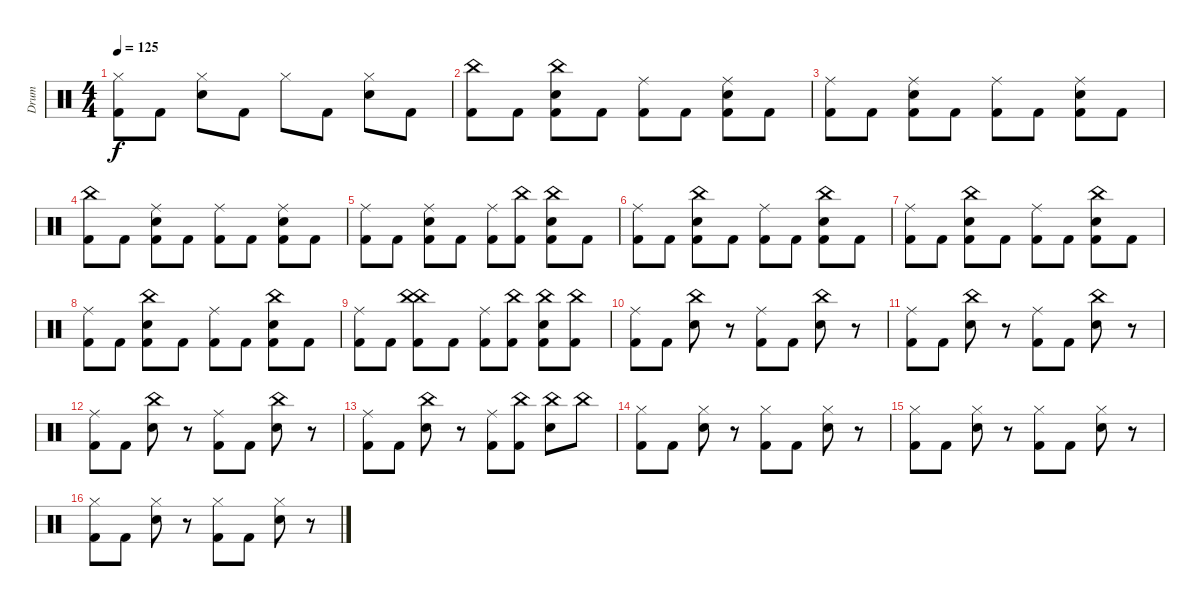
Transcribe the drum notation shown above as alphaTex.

\track ("Drum" "Drum") {instrument percussion}
\staff {score}
\articulation defaults
\ts (4 4)
\tempo 125
\clef neutral
\ks c
("Hi-Hat (closed)" "Kick (hit) 2").8{dy f} "Kick (hit) 2".8 ("Hi-Hat (closed)" "Snare (hit) 2").8 "Kick (hit) 2".8 "Hi-Hat (closed)".8 "Kick (hit) 2".8 ("Hi-Hat (closed)" "Snare (hit) 2").8 "Kick (hit) 2".8 |
("China (hit)" "Kick (hit) 2").8 "Kick (hit) 2".8 ("China (hit)" "Snare (hit) 2" "Kick (hit) 2").8 "Kick (hit) 2".8 ("Ride (middle)" "Kick (hit) 2").8 "Kick (hit) 2".8 ("Ride (middle)" "Snare (hit) 2" "Kick (hit) 2").8 "Kick (hit) 2".8 |
("Ride (middle)" "Kick (hit) 2").8 "Kick (hit) 2".8 ("Ride (middle)" "Snare (hit) 2" "Kick (hit) 2").8 "Kick (hit) 2".8 ("Ride (middle)" "Kick (hit) 2").8 "Kick (hit) 2".8 ("Ride (middle)" "Snare (hit) 2" "Kick (hit) 2").8 "Kick (hit) 2".8 |
("China (hit)" "Kick (hit) 2").8 "Kick (hit) 2".8 ("Ride (middle)" "Snare (hit) 2" "Kick (hit) 2").8 "Kick (hit) 2".8 ("Ride (middle)" "Kick (hit) 2").8 "Kick (hit) 2".8 ("Ride (middle)" "Snare (hit) 2" "Kick (hit) 2").8 "Kick (hit) 2".8 |
("Ride (middle)" "Kick (hit) 2").8 "Kick (hit) 2".8 ("Ride (middle)" "Snare (hit) 2" "Kick (hit) 2").8 "Kick (hit) 2".8 ("Ride (middle)" "Kick (hit) 2").8 ("China (hit)" "Kick (hit) 2").8 ("China (hit)" "Snare (hit) 2" "Kick (hit) 2").8 "Kick (hit) 2".8 |
("Ride (middle)" "Kick (hit) 2").8 "Kick (hit) 2".8 ("China (hit)" "Snare (hit) 2" "Kick (hit) 2").8 "Kick (hit) 2".8 ("Ride (middle)" "Kick (hit) 2").8 "Kick (hit) 2".8 ("China (hit)" "Snare (hit) 2" "Kick (hit) 2").8 "Kick (hit) 2".8 |
("Ride (middle)" "Kick (hit) 2").8 "Kick (hit) 2".8 ("China (hit)" "Snare (hit) 2" "Kick (hit) 2").8 "Kick (hit) 2".8 ("Ride (middle)" "Kick (hit) 2").8 "Kick (hit) 2".8 ("China (hit)" "Snare (hit) 2" "Kick (hit) 2").8 "Kick (hit) 2".8 |
("Ride (middle)" "Kick (hit) 2").8 "Kick (hit) 2".8 ("China (hit)" "Snare (hit) 2" "Kick (hit) 2").8 "Kick (hit) 2".8 ("Ride (middle)" "Kick (hit) 2").8 "Kick (hit) 2".8 ("China (hit)" "Snare (hit) 2" "Kick (hit) 2").8 "Kick (hit) 2".8 |
("Ride (middle)" "Kick (hit) 2").8 "Kick (hit) 2".8 ("China (hit)" "China (hit)" "Kick (hit) 2").8 "Kick (hit) 2".8 ("Ride (middle)" "Kick (hit) 2").8 ("China (hit)" "Kick (hit) 2").8 ("China (hit)" "Snare (hit) 2" "Kick (hit) 2").8 ("China (hit)" "Kick (hit) 2").8 |
("Ride (middle)" "Kick (hit) 2").8 "Kick (hit) 2".8 ("China (hit)" "Snare (hit) 2").8 r.8 ("Ride (middle)" "Kick (hit) 2").8 "Kick (hit) 2".8 ("China (hit)" "Snare (hit) 2").8 r.8 |
("Ride (middle)" "Kick (hit) 2").8 "Kick (hit) 2".8 ("China (hit)" "Snare (hit) 2").8 r.8 ("Ride (middle)" "Kick (hit) 2").8 "Kick (hit) 2".8 ("China (hit)" "Snare (hit) 2").8 r.8 |
("Ride (middle)" "Kick (hit) 2").8 "Kick (hit) 2".8 ("China (hit)" "Snare (hit) 2").8 r.8 ("Ride (middle)" "Kick (hit) 2").8 "Kick (hit) 2".8 ("China (hit)" "Snare (hit) 2").8 r.8 |
("Ride (middle)" "Kick (hit) 2").8 "Kick (hit) 2".8 ("China (hit)" "Snare (hit) 2").8 r.8 ("Ride (middle)" "Kick (hit) 2").8 ("China (hit)" "Kick (hit) 2").8 ("China (hit)" "Snare (hit) 2").8 "China (hit)".8 |
("Hi-Hat (closed)" "Kick (hit) 2").8 "Kick (hit) 2".8 ("Hi-Hat (closed)" "Snare (hit) 2").8 r.8 ("Hi-Hat (closed)" "Kick (hit) 2").8 "Kick (hit) 2".8 ("Hi-Hat (closed)" "Snare (hit) 2").8 r.8 |
("Hi-Hat (closed)" "Kick (hit) 2").8 "Kick (hit) 2".8 ("Hi-Hat (closed)" "Snare (hit) 2").8 r.8 ("Hi-Hat (closed)" "Kick (hit) 2").8 "Kick (hit) 2".8 ("Hi-Hat (closed)" "Snare (hit) 2").8 r.8 |
("Hi-Hat (closed)" "Kick (hit) 2").8 "Kick (hit) 2".8 ("Hi-Hat (closed)" "Snare (hit) 2").8 r.8 ("Hi-Hat (closed)" "Kick (hit) 2").8 "Kick (hit) 2".8 ("Hi-Hat (closed)" "Snare (hit) 2").8 r.8
